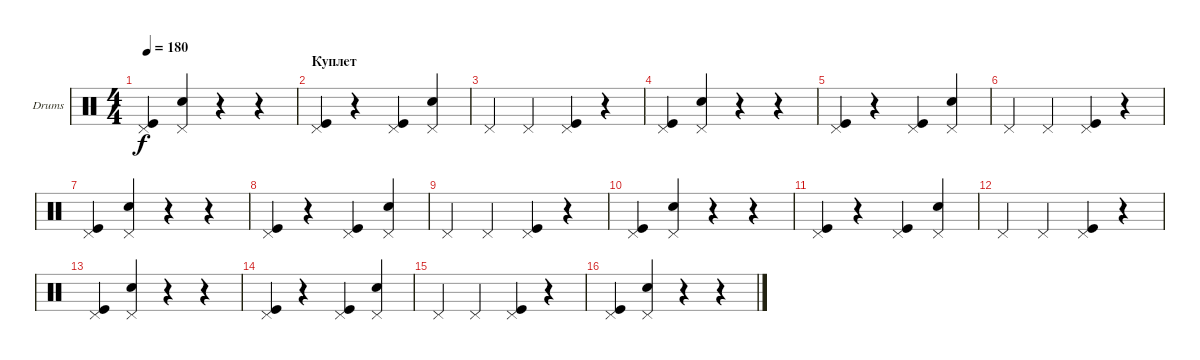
\defaultSystemsLayout 4
\bracketExtendMode groupsimilarinstruments
\firstSystemTrackNameOrientation horizontal
\otherSystemsTrackNameOrientation horizontal
\track ("Георгий Гурьянов" "Drums") {instrument percussion}
\staff {score}
\articulation defaults
\ts (4 4)
\tempo 180
\clef neutral
\ks c
("Pedal Hi-Hat (hit)" "Kick (hit)").4{dy f} ("Pedal Hi-Hat (hit)" "Snare (hit) 2").4 r.4 r.4 |
\section ("" "Куплет")
("Pedal Hi-Hat (hit)" "Kick (hit)").4 r.4 ("Pedal Hi-Hat (hit)" "Kick (hit)").4 ("Pedal Hi-Hat (hit)" "Snare (hit) 2").4 |
"Pedal Hi-Hat (hit)".4 "Pedal Hi-Hat (hit)".4 ("Pedal Hi-Hat (hit)" "Kick (hit)").4 r.4 |
("Pedal Hi-Hat (hit)" "Kick (hit)").4 ("Pedal Hi-Hat (hit)" "Snare (hit) 2").4 r.4 r.4 |
("Pedal Hi-Hat (hit)" "Kick (hit)").4 r.4 ("Pedal Hi-Hat (hit)" "Kick (hit)").4 ("Pedal Hi-Hat (hit)" "Snare (hit) 2").4 |
"Pedal Hi-Hat (hit)".4 "Pedal Hi-Hat (hit)".4 ("Pedal Hi-Hat (hit)" "Kick (hit)").4 r.4 |
("Pedal Hi-Hat (hit)" "Kick (hit)").4 ("Pedal Hi-Hat (hit)" "Snare (hit) 2").4 r.4 r.4 |
("Pedal Hi-Hat (hit)" "Kick (hit)").4 r.4 ("Pedal Hi-Hat (hit)" "Kick (hit)").4 ("Pedal Hi-Hat (hit)" "Snare (hit) 2").4 |
"Pedal Hi-Hat (hit)".4 "Pedal Hi-Hat (hit)".4 ("Pedal Hi-Hat (hit)" "Kick (hit)").4 r.4 |
("Pedal Hi-Hat (hit)" "Kick (hit)").4 ("Pedal Hi-Hat (hit)" "Snare (hit) 2").4 r.4 r.4 |
("Pedal Hi-Hat (hit)" "Kick (hit)").4 r.4 ("Pedal Hi-Hat (hit)" "Kick (hit)").4 ("Pedal Hi-Hat (hit)" "Snare (hit) 2").4 |
"Pedal Hi-Hat (hit)".4 "Pedal Hi-Hat (hit)".4 ("Pedal Hi-Hat (hit)" "Kick (hit)").4 r.4 |
("Pedal Hi-Hat (hit)" "Kick (hit)").4 ("Pedal Hi-Hat (hit)" "Snare (hit) 2").4 r.4 r.4 |
("Pedal Hi-Hat (hit)" "Kick (hit)").4 r.4 ("Pedal Hi-Hat (hit)" "Kick (hit)").4 ("Pedal Hi-Hat (hit)" "Snare (hit) 2").4 |
"Pedal Hi-Hat (hit)".4 "Pedal Hi-Hat (hit)".4 ("Pedal Hi-Hat (hit)" "Kick (hit)").4 r.4 |
("Pedal Hi-Hat (hit)" "Kick (hit)").4 ("Pedal Hi-Hat (hit)" "Snare (hit) 2").4 r.4 r.4
